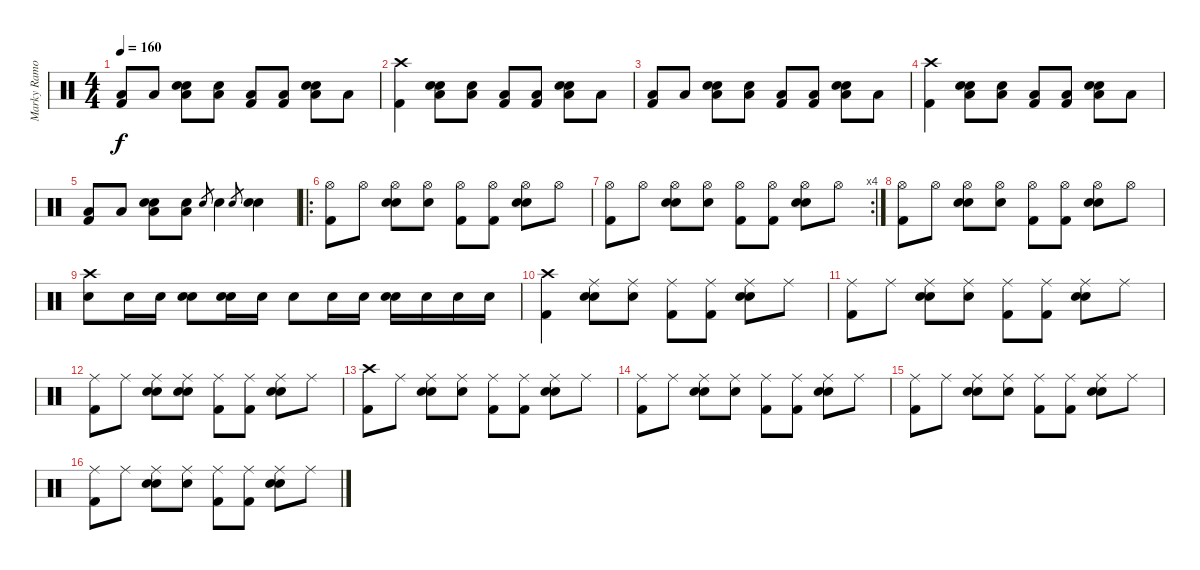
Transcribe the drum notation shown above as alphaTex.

\track ("Marky Ramone" "Marky Ramo") {instrument percussion}
\staff {score}
\articulation defaults
\ts (4 4)
\tempo 160
\clef neutral
\ks c
("Kick (hit) 2" "Low Floor Tom (hit)").8{dy f} "Low Floor Tom (hit)".8 ("Hand Clap (hit)" "Electric Snare (hit)" "Low Floor Tom (hit)").8 ("Hand Clap (hit)" "Low Floor Tom (hit)").8 ("Kick (hit) 2" "Low Floor Tom (hit)").8 ("Kick (hit) 2" "Low Floor Tom (hit)").8 ("Hand Clap (hit)" "Electric Snare (hit)" "Low Floor Tom (hit)").8 "Low Floor Tom (hit)".8 |
("Kick (hit) 2" "Crash high (hit)").4 ("Hand Clap (hit)" "Electric Snare (hit)" "Low Floor Tom (hit)").8 ("Hand Clap (hit)" "Low Floor Tom (hit)").8 ("Kick (hit) 2" "Low Floor Tom (hit)").8 ("Kick (hit) 2" "Low Floor Tom (hit)").8 ("Hand Clap (hit)" "Electric Snare (hit)" "Low Floor Tom (hit)").8 "Low Floor Tom (hit)".8 |
("Kick (hit) 2" "Low Floor Tom (hit)").8 "Low Floor Tom (hit)".8 ("Hand Clap (hit)" "Electric Snare (hit)" "Low Floor Tom (hit)").8 ("Hand Clap (hit)" "Low Floor Tom (hit)").8 ("Kick (hit) 2" "Low Floor Tom (hit)").8 ("Kick (hit) 2" "Low Floor Tom (hit)").8 ("Hand Clap (hit)" "Electric Snare (hit)" "Low Floor Tom (hit)").8 "Low Floor Tom (hit)".8 |
("Kick (hit) 2" "Crash high (hit)").4 ("Hand Clap (hit)" "Electric Snare (hit)" "Low Floor Tom (hit)").8 ("Hand Clap (hit)" "Low Floor Tom (hit)").8 ("Kick (hit) 2" "Low Floor Tom (hit)").8 ("Kick (hit) 2" "Low Floor Tom (hit)").8 ("Hand Clap (hit)" "Electric Snare (hit)" "Low Floor Tom (hit)").8 "Low Floor Tom (hit)".8 |
("Kick (hit) 2" "Low Floor Tom (hit)").8 "Low Floor Tom (hit)".8 ("Hand Clap (hit)" "Electric Snare (hit)" "Low Floor Tom (hit)").8 ("Hand Clap (hit)" "Low Floor Tom (hit)").8 "Electric Snare (hit)".8{gr} "Electric Snare (hit)".4 "Electric Snare (hit)".8{gr} ("Hand Clap (hit)" "Electric Snare (hit)").4 |
\ro
("Kick (hit) 2" "Hi-Hat (open)").8 "Hi-Hat (open)".8 ("Hand Clap (hit)" "Electric Snare (hit)" "Hi-Hat (open)").8 ("Hand Clap (hit)" "Hi-Hat (open)").8 ("Kick (hit) 2" "Hi-Hat (open)").8 ("Kick (hit) 2" "Hi-Hat (open)").8 ("Hand Clap (hit)" "Electric Snare (hit)" "Hi-Hat (open)").8 "Hi-Hat (open)".8 |
\rc 4
("Kick (hit) 2" "Hi-Hat (open)").8 "Hi-Hat (open)".8 ("Hand Clap (hit)" "Electric Snare (hit)" "Hi-Hat (open)").8 ("Hand Clap (hit)" "Hi-Hat (open)").8 ("Kick (hit) 2" "Hi-Hat (open)").8 ("Kick (hit) 2" "Hi-Hat (open)").8 ("Hand Clap (hit)" "Electric Snare (hit)" "Hi-Hat (open)").8 "Hi-Hat (open)".8 |
("Kick (hit) 2" "Hi-Hat (open)").8 "Hi-Hat (open)".8 ("Hand Clap (hit)" "Electric Snare (hit)" "Hi-Hat (open)").8 ("Hand Clap (hit)" "Hi-Hat (open)").8 ("Kick (hit) 2" "Hi-Hat (open)").8 ("Kick (hit) 2" "Hi-Hat (open)").8 ("Hand Clap (hit)" "Electric Snare (hit)" "Hi-Hat (open)").8 "Hi-Hat (open)".8 |
("Crash high (hit)" "Electric Snare (hit)").8 "Electric Snare (hit)".16 "Electric Snare (hit)".16 ("Hand Clap (hit)" "Electric Snare (hit)").8 ("Hand Clap (hit)" "Electric Snare (hit)").16 "Electric Snare (hit)".16 "Electric Snare (hit)".8 "Electric Snare (hit)".16 "Electric Snare (hit)".16 ("Hand Clap (hit)" "Electric Snare (hit)").16 "Electric Snare (hit)".16 "Electric Snare (hit)".16 "Electric Snare (hit)".16 |
("Kick (hit) 2" "Crash high (hit)").4 ("Hand Clap (hit)" "Electric Snare (hit)" "Ride (middle)").8 ("Hand Clap (hit)" "Ride (middle)").8 ("Kick (hit) 2" "Ride (middle)").8 ("Kick (hit) 2" "Ride (middle)").8 ("Hand Clap (hit)" "Electric Snare (hit)" "Ride (middle)").8 "Ride (middle)".8 |
("Kick (hit) 2" "Ride (middle)").8 "Ride (middle)".8 ("Hand Clap (hit)" "Electric Snare (hit)" "Ride (middle)").8 ("Hand Clap (hit)" "Ride (middle)").8 ("Kick (hit) 2" "Ride (middle)").8 ("Kick (hit) 2" "Ride (middle)").8 ("Hand Clap (hit)" "Electric Snare (hit)" "Ride (middle)").8 "Ride (middle)".8 |
("Kick (hit) 2" "Ride (middle)").8 "Ride (middle)".8 ("Hand Clap (hit)" "Electric Snare (hit)" "Ride (middle)").8 ("Hand Clap (hit)" "Electric Snare (hit)" "Ride (middle)").8 ("Kick (hit) 2" "Ride (middle)").8 ("Kick (hit) 2" "Ride (middle)").8 ("Hand Clap (hit)" "Electric Snare (hit)" "Ride (middle)").8 "Ride (middle)".8 |
("Kick (hit) 2" "Crash high (hit)").8 "Ride (middle)".8 ("Hand Clap (hit)" "Electric Snare (hit)" "Ride (middle)").8 ("Hand Clap (hit)" "Ride (middle)").8 ("Kick (hit) 2" "Ride (middle)").8 ("Kick (hit) 2" "Ride (middle)").8 ("Hand Clap (hit)" "Electric Snare (hit)" "Ride (middle)").8 "Ride (middle)".8 |
("Kick (hit) 2" "Ride (middle)").8 "Ride (middle)".8 ("Hand Clap (hit)" "Electric Snare (hit)" "Ride (middle)").8 ("Hand Clap (hit)" "Ride (middle)").8 ("Kick (hit) 2" "Ride (middle)").8 ("Kick (hit) 2" "Ride (middle)").8 ("Hand Clap (hit)" "Electric Snare (hit)" "Ride (middle)").8 "Ride (middle)".8 |
("Kick (hit) 2" "Ride (middle)").8 "Ride (middle)".8 ("Hand Clap (hit)" "Electric Snare (hit)" "Ride (middle)").8 ("Hand Clap (hit)" "Ride (middle)").8 ("Kick (hit) 2" "Ride (middle)").8 ("Kick (hit) 2" "Ride (middle)").8 ("Hand Clap (hit)" "Electric Snare (hit)" "Ride (middle)").8 "Ride (middle)".8 |
("Kick (hit) 2" "Ride (middle)").8 "Ride (middle)".8 ("Hand Clap (hit)" "Electric Snare (hit)" "Ride (middle)").8 ("Hand Clap (hit)" "Ride (middle)").8 ("Kick (hit) 2" "Ride (middle)").8 ("Kick (hit) 2" "Ride (middle)").8 ("Hand Clap (hit)" "Electric Snare (hit)" "Ride (middle)").8 "Ride (middle)".8
